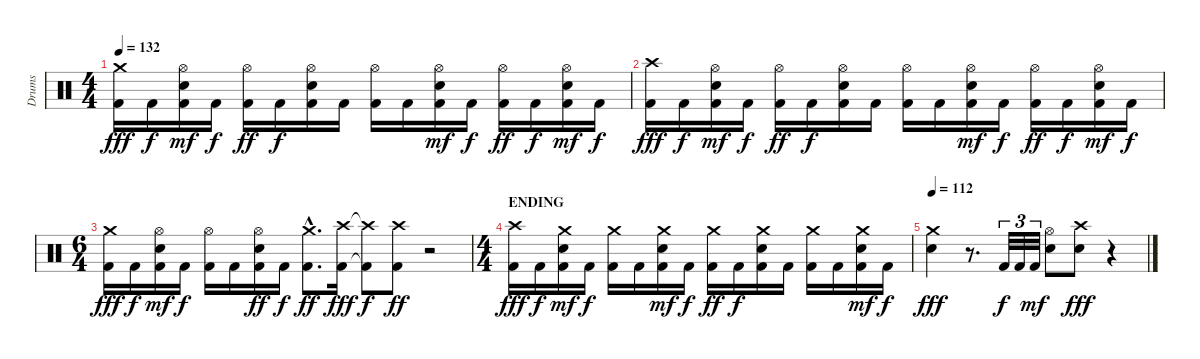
\track ("Drums" "Drums") {instrument percussion}
\staff {score}
\articulation defaults
\ts (4 4)
\tempo 132
\clef neutral
\ks c
("Crash medium (hit)" "Kick (hit) 2").16{dy fff} "Kick (hit) 2".16{dy f} ("Hi-Hat (open)" "Electric Snare (hit)" "Kick (hit) 2").16{dy mf} "Kick (hit) 2".16{dy f} ("Hi-Hat (open)" "Kick (hit) 2").16{dy ff} "Kick (hit) 2".16{dy f} ("Hi-Hat (open)" "Electric Snare (hit)" "Kick (hit) 2").16 "Kick (hit) 2".16 ("Hi-Hat (open)" "Kick (hit) 2").16 "Kick (hit) 2".16 ("Hi-Hat (open)" "Electric Snare (hit)" "Kick (hit) 2").16{dy mf} "Kick (hit) 2".16{dy f} ("Hi-Hat (open)" "Kick (hit) 2").16{dy ff} "Kick (hit) 2".16{dy f} ("Hi-Hat (open)" "Electric Snare (hit)" "Kick (hit) 2").16{dy mf} "Kick (hit) 2".16{dy f} |
("Crash high (hit)" "Kick (hit) 2").16{dy fff} "Kick (hit) 2".16{dy f} ("Hi-Hat (open)" "Electric Snare (hit)" "Kick (hit) 2").16{dy mf} "Kick (hit) 2".16{dy f} ("Hi-Hat (open)" "Kick (hit) 2").16{dy ff} "Kick (hit) 2".16{dy f} ("Hi-Hat (open)" "Electric Snare (hit)" "Kick (hit) 2").16 "Kick (hit) 2".16 ("Hi-Hat (open)" "Kick (hit) 2").16 "Kick (hit) 2".16 ("Hi-Hat (open)" "Electric Snare (hit)" "Kick (hit) 2").16{dy mf} "Kick (hit) 2".16{dy f} ("Hi-Hat (open)" "Kick (hit) 2").16{dy ff} "Kick (hit) 2".16{dy f} ("Hi-Hat (open)" "Electric Snare (hit)" "Kick (hit) 2").16{dy mf} "Kick (hit) 2".16{dy f} |
\ts (6 4)
("Crash medium (hit)" "Kick (hit) 2").16{dy fff} "Kick (hit) 2".16{dy f} ("Hi-Hat (open)" "Electric Snare (hit)" "Kick (hit) 2").16{dy mf} "Kick (hit) 2".16{dy f} ("Hi-Hat (open)" "Kick (hit) 2").16 "Kick (hit) 2".16 ("Hi-Hat (open)" "Electric Snare (hit)" "Kick (hit) 2").16{dy ff} "Kick (hit) 2".16{dy f} ("Crash medium (hit)"{hac} "Kick (hit) 2"{hac}).8{d dy ff} ("Crash high (hit)" "Kick (hit) 2").16{dy fff} ("Crash high (hit)"{t} "Kick (hit) 2"{t}).8{dy f} ("Crash high (hit)" "Kick (hit) 2").8{dy ff} r.2{volume 0} |
\ts (4 4)
\section ("" "ENDING")
("Crash high (hit)" "Kick (hit) 2").16{dy fff volume 14} "Kick (hit) 2".16{dy f} ("Crash medium (hit)" "Electric Snare (hit)" "Kick (hit) 2").16{dy mf} "Kick (hit) 2".16{dy f} ("Crash medium (hit)" "Kick (hit) 2").16 "Kick (hit) 2".16 ("Crash medium (hit)" "Electric Snare (hit)" "Kick (hit) 2").16{dy mf} "Kick (hit) 2".16{dy f} ("Crash medium (hit)" "Kick (hit) 2").16{dy ff} "Kick (hit) 2".16{dy f} ("Crash medium (hit)" "Electric Snare (hit)" "Kick (hit) 2").16 "Kick (hit) 2".16 ("Crash medium (hit)" "Kick (hit) 2").16 "Kick (hit) 2".16 ("Crash medium (hit)" "Electric Snare (hit)" "Kick (hit) 2").16{dy mf} "Kick (hit) 2".16{dy f} |
\tempo 112
("Crash medium (hit)" "Electric Snare (hit)").4{dy fff} r.8{d} "Kick (hit) 2".32{tu (3 2) dy f} "Kick (hit) 2".32{tu (3 2)} "Kick (hit) 2".32{tu (3 2) dy mf} ("Hi-Hat (open)" "Electric Snare (hit)").8 ("Crash high (hit)" "Electric Snare (hit)").8{dy fff} r.4
